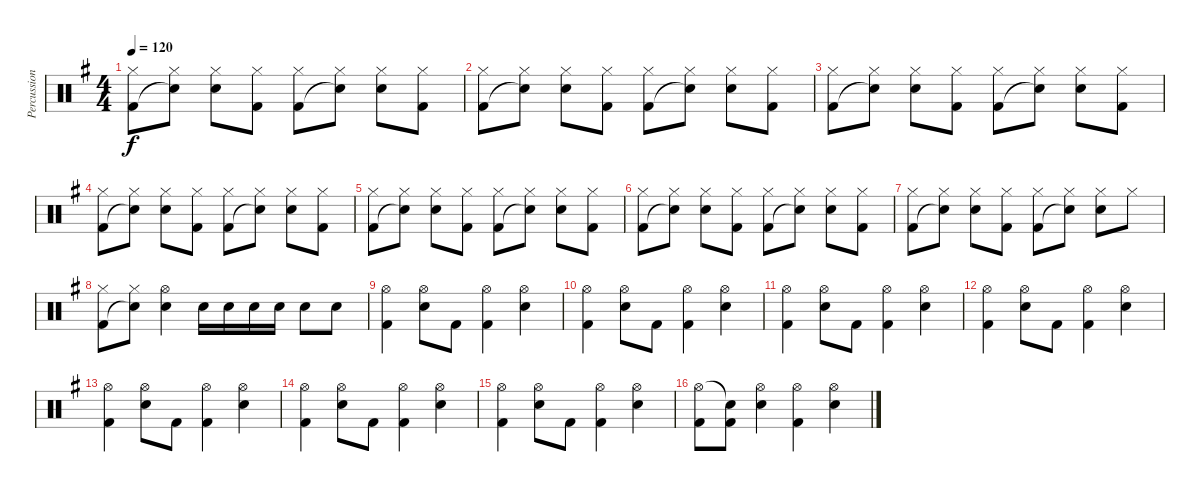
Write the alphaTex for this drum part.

\track ("Percussion" "Percussion") {instrument percussion}
\staff {score}
\articulation defaults
\ts (4 4)
\tempo 120
\clef neutral
\ks g
("Hi-Hat (closed)" "Kick (hit) 2").8{dy f} ("Hi-Hat (closed)" "Snare (hit)"{t}).8 ("Hi-Hat (closed)" "Snare (hit) 2").8 ("Hi-Hat (closed)" "Kick (hit) 2").8 ("Hi-Hat (closed)" "Kick (hit) 2").8 ("Hi-Hat (closed)" "Snare (hit)"{t}).8 ("Hi-Hat (closed)" "Snare (hit) 2").8 ("Hi-Hat (closed)" "Kick (hit) 2").8 |
("Hi-Hat (closed)" "Kick (hit) 2").8 ("Hi-Hat (closed)" "Snare (hit)"{t}).8 ("Hi-Hat (closed)" "Snare (hit) 2").8 ("Hi-Hat (closed)" "Kick (hit) 2").8 ("Hi-Hat (closed)" "Kick (hit) 2").8 ("Hi-Hat (closed)" "Snare (hit)"{t}).8 ("Hi-Hat (closed)" "Snare (hit) 2").8 ("Hi-Hat (closed)" "Kick (hit) 2").8 |
("Hi-Hat (closed)" "Kick (hit) 2").8 ("Hi-Hat (closed)" "Snare (hit)"{t}).8 ("Hi-Hat (closed)" "Snare (hit) 2").8 ("Hi-Hat (closed)" "Kick (hit) 2").8 ("Hi-Hat (closed)" "Kick (hit) 2").8 ("Hi-Hat (closed)" "Snare (hit)"{t}).8 ("Hi-Hat (closed)" "Snare (hit) 2").8 ("Hi-Hat (closed)" "Kick (hit) 2").8 |
("Hi-Hat (closed)" "Kick (hit) 2").8 ("Hi-Hat (closed)" "Snare (hit)"{t}).8 ("Hi-Hat (closed)" "Snare (hit) 2").8 ("Hi-Hat (closed)" "Kick (hit) 2").8 ("Hi-Hat (closed)" "Kick (hit) 2").8 ("Hi-Hat (closed)" "Snare (hit)"{t}).8 ("Hi-Hat (closed)" "Snare (hit) 2").8 ("Hi-Hat (closed)" "Kick (hit) 2").8 |
("Hi-Hat (closed)" "Kick (hit) 2").8 ("Hi-Hat (closed)" "Snare (hit)"{t}).8 ("Hi-Hat (closed)" "Snare (hit) 2").8 ("Hi-Hat (closed)" "Kick (hit) 2").8 ("Hi-Hat (closed)" "Kick (hit) 2").8 ("Hi-Hat (closed)" "Snare (hit)"{t}).8 ("Hi-Hat (closed)" "Snare (hit) 2").8 ("Hi-Hat (closed)" "Kick (hit) 2").8 |
("Hi-Hat (closed)" "Kick (hit) 2").8 ("Hi-Hat (closed)" "Snare (hit)"{t}).8 ("Hi-Hat (closed)" "Snare (hit) 2").8 ("Hi-Hat (closed)" "Kick (hit) 2").8 ("Hi-Hat (closed)" "Kick (hit) 2").8 ("Hi-Hat (closed)" "Snare (hit)"{t}).8 ("Hi-Hat (closed)" "Snare (hit) 2").8 ("Hi-Hat (closed)" "Kick (hit) 2").8 |
("Hi-Hat (closed)" "Kick (hit) 2").8 ("Hi-Hat (closed)" "Snare (hit)"{t}).8 ("Hi-Hat (closed)" "Snare (hit) 2").8 ("Hi-Hat (closed)" "Kick (hit) 2").8 ("Hi-Hat (closed)" "Kick (hit) 2").8 ("Hi-Hat (closed)" "Snare (hit)"{t}).8 ("Hi-Hat (closed)" "Snare (hit) 2").8 "Hi-Hat (closed)".8 |
("Hi-Hat (closed)" "Kick (hit) 2").8 ("Hi-Hat (closed)" "Snare (hit)"{t}).8 ("Hi-Hat (open)" "Snare (hit) 2").4 "Snare (hit) 2".16 "Snare (hit) 2".16 "Snare (hit) 2".16 "Snare (hit) 2".16 "Snare (hit) 2".8 "Snare (hit) 2".8 |
("Hi-Hat (open)" "Kick (hit) 2").4 ("Hi-Hat (open)" "Snare (hit) 2").8 "Kick (hit) 2".8 ("Hi-Hat (open)" "Kick (hit) 2").4 ("Hi-Hat (open)" "Snare (hit) 2").4 |
("Hi-Hat (open)" "Kick (hit) 2").4 ("Hi-Hat (open)" "Snare (hit) 2").8 "Kick (hit) 2".8 ("Hi-Hat (open)" "Kick (hit) 2").4 ("Hi-Hat (open)" "Snare (hit) 2").4 |
("Hi-Hat (open)" "Kick (hit) 2").4 ("Hi-Hat (open)" "Snare (hit) 2").8 "Kick (hit) 2".8 ("Hi-Hat (open)" "Kick (hit) 2").4 ("Hi-Hat (open)" "Snare (hit) 2").4 |
("Hi-Hat (open)" "Kick (hit) 2").4 ("Hi-Hat (open)" "Snare (hit) 2").8 "Kick (hit) 2".8 ("Hi-Hat (open)" "Kick (hit) 2").4 ("Hi-Hat (open)" "Snare (hit) 2").4 |
("Hi-Hat (open)" "Kick (hit) 2").4 ("Hi-Hat (open)" "Snare (hit) 2").8 "Kick (hit) 2".8 ("Hi-Hat (open)" "Kick (hit) 2").4 ("Hi-Hat (open)" "Snare (hit) 2").4 |
("Hi-Hat (open)" "Kick (hit) 2").4 ("Hi-Hat (open)" "Snare (hit) 2").8 "Kick (hit) 2".8 ("Hi-Hat (open)" "Kick (hit) 2").4 ("Hi-Hat (open)" "Snare (hit) 2").4 |
("Hi-Hat (open)" "Kick (hit) 2").4 ("Hi-Hat (open)" "Snare (hit) 2").8 "Kick (hit) 2".8 ("Hi-Hat (open)" "Kick (hit) 2").4 ("Hi-Hat (open)" "Snare (hit) 2").4 |
("Hi-Hat (open)" "Kick (hit) 2").8 ("Snare (hit)"{t} "Kick (hit) 2").8 ("Hi-Hat (open)" "Snare (hit) 2").4 ("Hi-Hat (open)" "Kick (hit) 2").4 ("Hi-Hat (open)" "Snare (hit) 2").4
